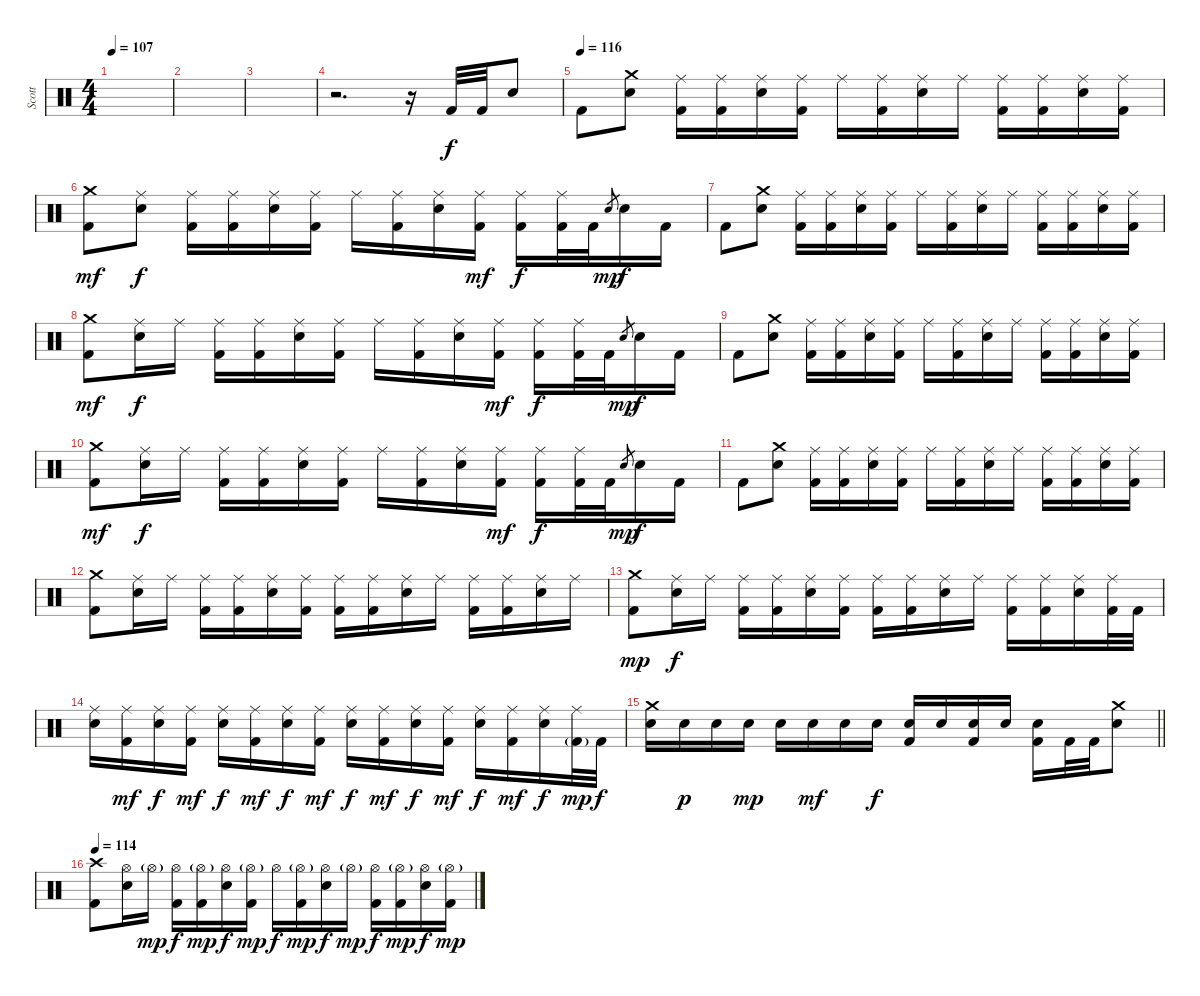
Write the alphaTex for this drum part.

\track ("Scott" "Scott") {instrument percussion}
\staff {score}
\articulation defaults
\ts (4 4)
\tempo 107
\clef neutral
\ks c
|
|
|
r.2{d} r.16 "Kick (hit) 2".32 "Kick (hit) 2".32{dy f} "Electric Snare (hit)".8 |
\tempo (116)
"Kick (hit) 2".8 ("Crash medium (hit)" "Electric Snare (hit)").8 ("Ride (middle)" "Kick (hit) 2").16 ("Ride (middle)" "Kick (hit) 2").16 ("Ride (middle)" "Electric Snare (hit)").16 ("Ride (middle)" "Kick (hit) 2").16 "Ride (middle)".16 ("Ride (middle)" "Kick (hit) 2").16 ("Ride (middle)" "Electric Snare (hit)").16 "Ride (middle)".16 ("Ride (middle)" "Kick (hit) 2").16 ("Ride (middle)" "Kick (hit) 2").16 ("Ride (middle)" "Electric Snare (hit)").16 ("Ride (middle)" "Kick (hit) 2").16 |
("Crash medium (hit)" "Kick (hit) 2").8{dy mf} ("Ride (middle)" "Electric Snare (hit)").8{dy f} ("Ride (middle)" "Kick (hit) 2").16 ("Ride (middle)" "Kick (hit) 2").16 ("Ride (middle)" "Electric Snare (hit)").16 ("Ride (middle)" "Kick (hit) 2").16 "Ride (middle)".16 ("Ride (middle)" "Kick (hit) 2").16 ("Ride (middle)" "Electric Snare (hit)").16 ("Ride (middle)" "Kick (hit) 2").16{dy mf} ("Ride (middle)" "Kick (hit) 2").16{dy f} ("Ride (middle)" "Kick (hit) 2").32 "Kick (hit) 2".32 "Electric Snare (hit)".8{gr dy mp} "Electric Snare (hit)".16{dy f} "Kick (hit) 2".16 |
"Kick (hit) 2".8 ("Crash medium (hit)" "Electric Snare (hit)").8 ("Ride (middle)" "Kick (hit) 2").16 ("Ride (middle)" "Kick (hit) 2").16 ("Ride (middle)" "Electric Snare (hit)").16 ("Ride (middle)" "Kick (hit) 2").16 "Ride (middle)".16 ("Ride (middle)" "Kick (hit) 2").16 ("Ride (middle)" "Electric Snare (hit)").16 "Ride (middle)".16 ("Ride (middle)" "Kick (hit) 2").16 ("Ride (middle)" "Kick (hit) 2").16 ("Ride (middle)" "Electric Snare (hit)").16 ("Ride (middle)" "Kick (hit) 2").16 |
("Crash medium (hit)" "Kick (hit) 2").8{dy mf} ("Ride (middle)" "Electric Snare (hit)").16{dy f} "Ride (middle)".16 ("Ride (middle)" "Kick (hit) 2").16 ("Ride (middle)" "Kick (hit) 2").16 ("Ride (middle)" "Electric Snare (hit)").16 ("Ride (middle)" "Kick (hit) 2").16 "Ride (middle)".16 ("Ride (middle)" "Kick (hit) 2").16 ("Ride (middle)" "Electric Snare (hit)").16 ("Ride (middle)" "Kick (hit) 2").16{dy mf} ("Ride (middle)" "Kick (hit) 2").16{dy f} ("Ride (middle)" "Kick (hit) 2").32 "Kick (hit) 2".32 "Electric Snare (hit)".8{gr dy mp} "Electric Snare (hit)".16{dy f} "Kick (hit) 2".16 |
"Kick (hit) 2".8 ("Crash medium (hit)" "Electric Snare (hit)").8 ("Ride (middle)" "Kick (hit) 2").16 ("Ride (middle)" "Kick (hit) 2").16 ("Ride (middle)" "Electric Snare (hit)").16 ("Ride (middle)" "Kick (hit) 2").16 "Ride (middle)".16 ("Ride (middle)" "Kick (hit) 2").16 ("Ride (middle)" "Electric Snare (hit)").16 "Ride (middle)".16 ("Ride (middle)" "Kick (hit) 2").16 ("Ride (middle)" "Kick (hit) 2").16 ("Ride (middle)" "Electric Snare (hit)").16 ("Ride (middle)" "Kick (hit) 2").16 |
("Crash medium (hit)" "Kick (hit) 2").8{dy mf} ("Ride (middle)" "Electric Snare (hit)").16{dy f} "Ride (middle)".16 ("Ride (middle)" "Kick (hit) 2").16 ("Ride (middle)" "Kick (hit) 2").16 ("Ride (middle)" "Electric Snare (hit)").16 ("Ride (middle)" "Kick (hit) 2").16 "Ride (middle)".16 ("Ride (middle)" "Kick (hit) 2").16 ("Ride (middle)" "Electric Snare (hit)").16 ("Ride (middle)" "Kick (hit) 2").16{dy mf} ("Ride (middle)" "Kick (hit) 2").16{dy f} ("Ride (middle)" "Kick (hit) 2").32 "Kick (hit) 2".32 "Electric Snare (hit)".8{gr dy mp} "Electric Snare (hit)".16{dy f} "Kick (hit) 2".16 |
"Kick (hit) 2".8 ("Crash medium (hit)" "Electric Snare (hit)").8 ("Ride (middle)" "Kick (hit) 2").16 ("Ride (middle)" "Kick (hit) 2").16 ("Ride (middle)" "Electric Snare (hit)").16 ("Ride (middle)" "Kick (hit) 2").16 "Ride (middle)".16 ("Ride (middle)" "Kick (hit) 2").16 ("Ride (middle)" "Electric Snare (hit)").16 "Ride (middle)".16 ("Ride (middle)" "Kick (hit) 2").16 ("Ride (middle)" "Kick (hit) 2").16 ("Ride (middle)" "Electric Snare (hit)").16 ("Ride (middle)" "Kick (hit) 2").16 |
("Crash medium (hit)" "Kick (hit) 2").8 ("Ride (middle)" "Electric Snare (hit)").16 "Ride (middle)".16 ("Ride (middle)" "Kick (hit) 2").16 ("Ride (middle)" "Kick (hit) 2").16 ("Ride (middle)" "Electric Snare (hit)").16 ("Ride (middle)" "Kick (hit) 2").16 ("Ride (middle)" "Kick (hit) 2").16 ("Ride (middle)" "Kick (hit) 2").16 ("Ride (middle)" "Electric Snare (hit)").16 "Ride (middle)".16 ("Ride (middle)" "Kick (hit) 2").16 ("Ride (middle)" "Kick (hit) 2").16 ("Ride (middle)" "Electric Snare (hit)").16 "Ride (middle)".16 |
("Crash medium (hit)" "Kick (hit) 2").8{dy mp} ("Ride (middle)" "Electric Snare (hit)").16{dy f} "Ride (middle)".16 ("Ride (middle)" "Kick (hit) 2").16 ("Ride (middle)" "Kick (hit) 2").16 ("Ride (middle)" "Electric Snare (hit)").16 ("Ride (middle)" "Kick (hit) 2").16 ("Ride (middle)" "Kick (hit) 2").16 ("Ride (middle)" "Kick (hit) 2").16 ("Ride (middle)" "Electric Snare (hit)").16 "Ride (middle)".16 ("Ride (middle)" "Kick (hit) 2").16 ("Ride (middle)" "Kick (hit) 2").16 ("Ride (middle)" "Electric Snare (hit)").16 ("Ride (middle)" "Kick (hit) 2").32 "Kick (hit) 2".32 |
("Ride (middle)" "Electric Snare (hit)").16 ("Ride (middle)" "Kick (hit) 2").16{dy mf} ("Ride (middle)" "Electric Snare (hit)").16{dy f} ("Ride (middle)" "Kick (hit) 2").16{dy mf} ("Ride (middle)" "Electric Snare (hit)").16{dy f} ("Ride (middle)" "Kick (hit) 2").16{dy mf} ("Ride (middle)" "Electric Snare (hit)").16{dy f} ("Ride (middle)" "Kick (hit) 2").16{dy mf} ("Ride (middle)" "Electric Snare (hit)").16{dy f} ("Ride (middle)" "Kick (hit) 2").16{dy mf} ("Ride (middle)" "Electric Snare (hit)").16{dy f} ("Ride (middle)" "Kick (hit) 2").16{dy mf} ("Ride (middle)" "Electric Snare (hit)").16{dy f} ("Ride (middle)" "Kick (hit) 2").16{dy mf} ("Ride (middle)" "Electric Snare (hit)").16{dy f} ("Ride (middle)" "Kick (hit) 2"{g}).32{dy mp} "Kick (hit) 2".32{dy f} |
\barLineRight lightlight
("Crash medium (hit)" "Electric Snare (hit)").16 "Electric Snare (hit)".16{dy p} "Electric Snare (hit)".16 "Electric Snare (hit)".16{dy mp} "Electric Snare (hit)".16 "Electric Snare (hit)".16{dy mf} "Electric Snare (hit)".16 "Electric Snare (hit)".16{dy f} ("Electric Snare (hit)" "Kick (hit) 2").16 "Electric Snare (hit)".16 ("Electric Snare (hit)" "Kick (hit) 2").16 "Electric Snare (hit)".16 ("Electric Snare (hit)" "Kick (hit) 2").16 "Kick (hit) 2".32 "Kick (hit) 2".32 ("Crash medium (hit)" "Electric Snare (hit)").8 |
\section ("" "")
\tempo 114
("Crash high (hit)" "Kick (hit) 2").8 ("Hi-Hat (open)" "Electric Snare (hit)").16 "Hi-Hat (open)"{g}.16{dy mp} ("Hi-Hat (open)" "Kick (hit) 2").16{dy f} ("Hi-Hat (open)"{g} "Kick (hit) 2").16{dy mp} ("Hi-Hat (open)" "Electric Snare (hit)").16{dy f} ("Hi-Hat (open)"{g} "Kick (hit) 2").16{dy mp} "Hi-Hat (open)".16{dy f} ("Hi-Hat (open)"{g} "Kick (hit) 2").16{dy mp} ("Hi-Hat (open)" "Electric Snare (hit)").16{dy f} "Hi-Hat (open)"{g}.16{dy mp} ("Hi-Hat (open)" "Kick (hit) 2").16{dy f} ("Hi-Hat (open)"{g} "Kick (hit) 2").16{dy mp} ("Hi-Hat (open)" "Electric Snare (hit)").16{dy f} ("Hi-Hat (open)"{g} "Kick (hit) 2").16{dy mp}
